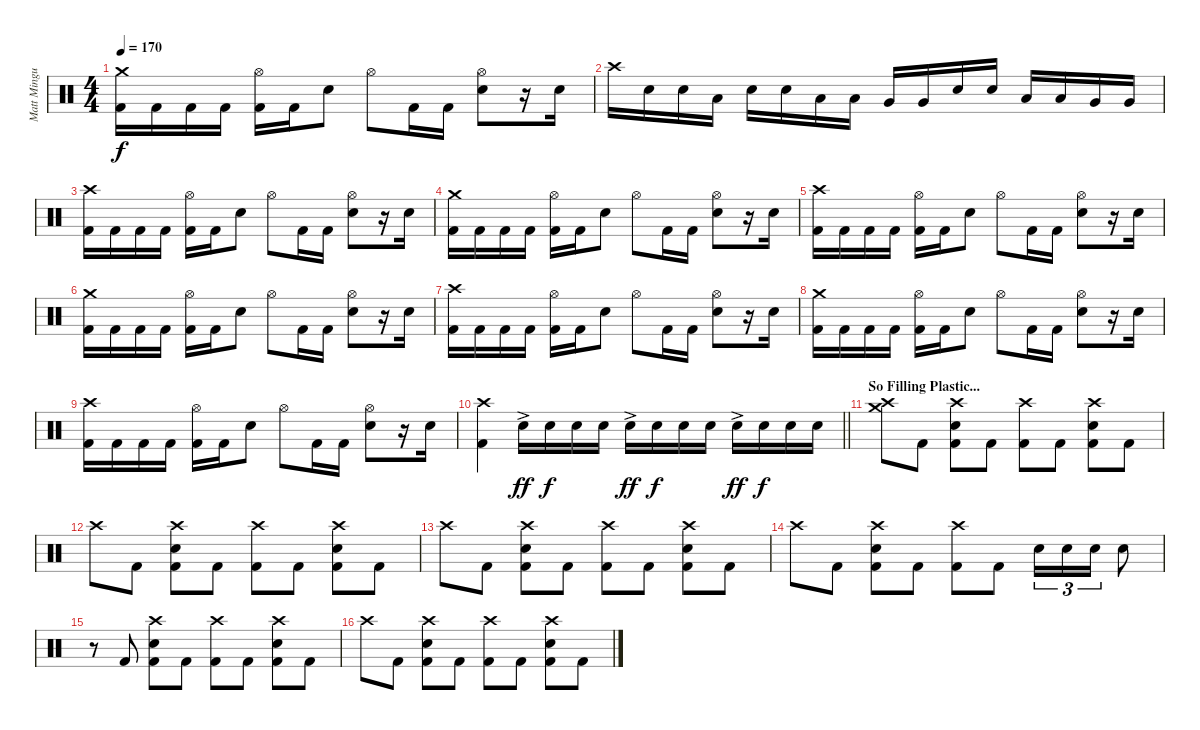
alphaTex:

\track ("Matt Mingus" "Matt Mingu") {instrument percussion}
\staff {score}
\articulation defaults
\ts (4 4)
\tempo 170
\clef neutral
\ks c
("Crash medium (hit)" "Kick (hit) 2").16{dy f} "Kick (hit) 2".16 "Kick (hit) 2".16 "Kick (hit) 2".16 ("Hi-Hat (open)" "Kick (hit) 2").16 "Kick (hit) 2".16 "Electric Snare (hit)".8 "Hi-Hat (open)".8 "Kick (hit) 2".16 "Kick (hit) 2".16 ("Hi-Hat (open)" "Electric Snare (hit)").8 r.16 "Electric Snare (hit)".16 |
"Crash high (hit)".16 "Electric Snare (hit)".16 "Electric Snare (hit)".16 "Low Tom (hit)".16 "Electric Snare (hit)".16 "Electric Snare (hit)".16 "Low Tom (hit)".16 "Low Tom (hit)".16 "Very Low Tom (hit)".16 "Very Low Tom (hit)".16 "Electric Snare (hit)".16 "Electric Snare (hit)".16 "Low Tom (hit)".16 "Low Tom (hit)".16 "Very Low Tom (hit)".16 "Very Low Tom (hit)".16 |
("Crash high (hit)" "Kick (hit) 2").16 "Kick (hit) 2".16 "Kick (hit) 2".16 "Kick (hit) 2".16 ("Hi-Hat (open)" "Kick (hit) 2").16 "Kick (hit) 2".16 "Electric Snare (hit)".8 "Hi-Hat (open)".8 "Kick (hit) 2".16 "Kick (hit) 2".16 ("Hi-Hat (open)" "Electric Snare (hit)").8 r.16 "Electric Snare (hit)".16 |
("Crash medium (hit)" "Kick (hit) 2").16 "Kick (hit) 2".16 "Kick (hit) 2".16 "Kick (hit) 2".16 ("Hi-Hat (open)" "Kick (hit) 2").16 "Kick (hit) 2".16 "Electric Snare (hit)".8 "Hi-Hat (open)".8 "Kick (hit) 2".16 "Kick (hit) 2".16 ("Hi-Hat (open)" "Electric Snare (hit)").8 r.16 "Electric Snare (hit)".16 |
("Crash high (hit)" "Kick (hit) 2").16 "Kick (hit) 2".16 "Kick (hit) 2".16 "Kick (hit) 2".16 ("Hi-Hat (open)" "Kick (hit) 2").16 "Kick (hit) 2".16 "Electric Snare (hit)".8 "Hi-Hat (open)".8 "Kick (hit) 2".16 "Kick (hit) 2".16 ("Hi-Hat (open)" "Electric Snare (hit)").8 r.16 "Electric Snare (hit)".16 |
("Crash medium (hit)" "Kick (hit) 2").16 "Kick (hit) 2".16 "Kick (hit) 2".16 "Kick (hit) 2".16 ("Hi-Hat (open)" "Kick (hit) 2").16 "Kick (hit) 2".16 "Electric Snare (hit)".8 "Hi-Hat (open)".8 "Kick (hit) 2".16 "Kick (hit) 2".16 ("Hi-Hat (open)" "Electric Snare (hit)").8 r.16 "Electric Snare (hit)".16 |
("Crash high (hit)" "Kick (hit) 2").16 "Kick (hit) 2".16 "Kick (hit) 2".16 "Kick (hit) 2".16 ("Hi-Hat (open)" "Kick (hit) 2").16 "Kick (hit) 2".16 "Electric Snare (hit)".8 "Hi-Hat (open)".8 "Kick (hit) 2".16 "Kick (hit) 2".16 ("Hi-Hat (open)" "Electric Snare (hit)").8 r.16 "Electric Snare (hit)".16 |
("Crash medium (hit)" "Kick (hit) 2").16 "Kick (hit) 2".16 "Kick (hit) 2".16 "Kick (hit) 2".16 ("Hi-Hat (open)" "Kick (hit) 2").16 "Kick (hit) 2".16 "Electric Snare (hit)".8 "Hi-Hat (open)".8 "Kick (hit) 2".16 "Kick (hit) 2".16 ("Hi-Hat (open)" "Electric Snare (hit)").8 r.16 "Electric Snare (hit)".16 |
("Crash high (hit)" "Kick (hit) 2").16 "Kick (hit) 2".16 "Kick (hit) 2".16 "Kick (hit) 2".16 ("Hi-Hat (open)" "Kick (hit) 2").16 "Kick (hit) 2".16 "Electric Snare (hit)".8 "Hi-Hat (open)".8 "Kick (hit) 2".16 "Kick (hit) 2".16 ("Hi-Hat (open)" "Electric Snare (hit)").8 r.16 "Electric Snare (hit)".16 |
\barLineRight lightlight
("Crash high (hit)" "Kick (hit) 2").4 "Electric Snare (hit)"{ac}.16{dy ff} "Electric Snare (hit)".16{dy f} "Electric Snare (hit)".16 "Electric Snare (hit)".16 "Electric Snare (hit)"{ac}.16{dy ff} "Electric Snare (hit)".16{dy f} "Electric Snare (hit)".16 "Electric Snare (hit)".16 "Electric Snare (hit)"{ac}.16{dy ff} "Electric Snare (hit)".16{dy f} "Electric Snare (hit)".16 "Electric Snare (hit)".16 |
\section ("" "So Filling Plastic...")
("Crash high (hit)" "Crash medium (hit)").8 "Kick (hit) 2".8 ("Crash high (hit)" "Electric Snare (hit)" "Kick (hit) 2").8 "Kick (hit) 2".8 ("Crash high (hit)" "Kick (hit) 2").8 "Kick (hit) 2".8 ("Crash high (hit)" "Electric Snare (hit)" "Kick (hit) 2").8 "Kick (hit) 2".8 |
"Crash high (hit)".8 "Kick (hit) 2".8 ("Crash high (hit)" "Electric Snare (hit)" "Kick (hit) 2").8 "Kick (hit) 2".8 ("Crash high (hit)" "Kick (hit) 2").8 "Kick (hit) 2".8 ("Crash high (hit)" "Electric Snare (hit)" "Kick (hit) 2").8 "Kick (hit) 2".8 |
"Crash high (hit)".8 "Kick (hit) 2".8 ("Crash high (hit)" "Electric Snare (hit)" "Kick (hit) 2").8 "Kick (hit) 2".8 ("Crash high (hit)" "Kick (hit) 2").8 "Kick (hit) 2".8 ("Crash high (hit)" "Electric Snare (hit)" "Kick (hit) 2").8 "Kick (hit) 2".8 |
"Crash high (hit)".8 "Kick (hit) 2".8 ("Crash high (hit)" "Electric Snare (hit)" "Kick (hit) 2").8 "Kick (hit) 2".8 ("Crash high (hit)" "Kick (hit) 2").8 "Kick (hit) 2".8 "Electric Snare (hit)".16{tu (3 2)} "Electric Snare (hit)".16{tu (3 2)} "Electric Snare (hit)".16{tu (3 2)} "Electric Snare (hit)".8 |
r.8 "Kick (hit) 2".8 ("Crash high (hit)" "Electric Snare (hit)" "Kick (hit) 2").8 "Kick (hit) 2".8 ("Crash high (hit)" "Kick (hit) 2").8 "Kick (hit) 2".8 ("Crash high (hit)" "Electric Snare (hit)" "Kick (hit) 2").8 "Kick (hit) 2".8 |
"Crash high (hit)".8 "Kick (hit) 2".8 ("Crash high (hit)" "Electric Snare (hit)" "Kick (hit) 2").8 "Kick (hit) 2".8 ("Crash high (hit)" "Kick (hit) 2").8 "Kick (hit) 2".8 ("Crash high (hit)" "Electric Snare (hit)" "Kick (hit) 2").8 "Kick (hit) 2".8
